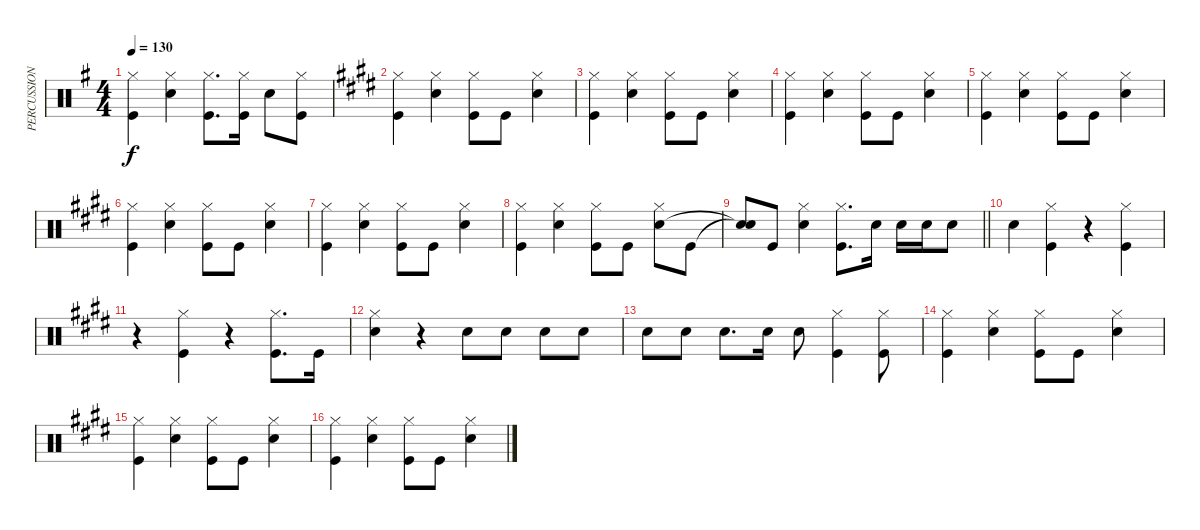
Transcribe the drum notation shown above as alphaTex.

\track ("PERCUSSION" "PERCUSSION") {instrument percussion}
\staff {score}
\articulation defaults
\ts (4 4)
\tempo 130
\clef neutral
\ks eminor
("Hi-Hat (closed)" "Kick (hit)").4{dy f} ("Hi-Hat (closed)" "Snare (hit) 2").4 ("Hi-Hat (closed)" "Kick (hit)").8{d} ("Hi-Hat (closed)" "Kick (hit)").16 "Snare (hit) 2".8 ("Hi-Hat (closed)" "Kick (hit)").8 |
\ks e
("Hi-Hat (closed)" "Kick (hit)").4 ("Hi-Hat (closed)" "Snare (hit) 2").4 ("Hi-Hat (closed)" "Kick (hit)").8 "Kick (hit)".8 ("Hi-Hat (closed)" "Snare (hit) 2").4 |
("Hi-Hat (closed)" "Kick (hit)").4 ("Hi-Hat (closed)" "Snare (hit) 2").4 ("Hi-Hat (closed)" "Kick (hit)").8 "Kick (hit)".8 ("Hi-Hat (closed)" "Snare (hit) 2").4 |
("Hi-Hat (closed)" "Kick (hit)").4 ("Hi-Hat (closed)" "Snare (hit) 2").4 ("Hi-Hat (closed)" "Kick (hit)").8 "Kick (hit)".8 ("Hi-Hat (closed)" "Snare (hit) 2").4 |
("Hi-Hat (closed)" "Kick (hit)").4 ("Hi-Hat (closed)" "Snare (hit) 2").4 ("Hi-Hat (closed)" "Kick (hit)").8 "Kick (hit)".8 ("Hi-Hat (closed)" "Snare (hit) 2").4 |
("Hi-Hat (closed)" "Kick (hit)").4 ("Hi-Hat (closed)" "Snare (hit) 2").4 ("Hi-Hat (closed)" "Kick (hit)").8 "Kick (hit)".8 ("Hi-Hat (closed)" "Snare (hit) 2").4 |
("Hi-Hat (closed)" "Kick (hit)").4 ("Hi-Hat (closed)" "Snare (hit) 2").4 ("Hi-Hat (closed)" "Kick (hit)").8 "Kick (hit)".8 ("Hi-Hat (closed)" "Snare (hit) 2").4 |
("Hi-Hat (closed)" "Kick (hit)").4 ("Hi-Hat (closed)" "Snare (hit) 2").4 ("Hi-Hat (closed)" "Kick (hit)").8 "Kick (hit)".8 ("Hi-Hat (closed)" "Snare (hit) 2").8 "Kick (hit)".8 |
\barLineRight lightlight
("Snare (hit)"{t} "Snare (hit)"{t}).8 "Kick (hit)".8 ("Hi-Hat (closed)" "Snare (hit) 2").4 ("Hi-Hat (closed)" "Kick (hit)").8{d} "Snare (hit) 2".16 "Snare (hit) 2".16 "Snare (hit) 2".16 "Snare (hit) 2".8 |
"Snare (hit) 2".4 ("Hi-Hat (closed)" "Kick (hit)").4 r.4 ("Hi-Hat (closed)" "Kick (hit)").4 |
r.4 ("Hi-Hat (closed)" "Kick (hit)").4 r.4 ("Hi-Hat (closed)" "Kick (hit)").8{d} "Kick (hit)".16 |
("Hi-Hat (closed)" "Snare (hit) 2").4 r.4 "Snare (hit) 2".8 "Snare (hit) 2".8 "Snare (hit) 2".8 "Snare (hit) 2".8 |
"Snare (hit) 2".8 "Snare (hit) 2".8 "Snare (hit) 2".8{d} "Snare (hit) 2".16 "Snare (hit) 2".8 ("Hi-Hat (closed)" "Kick (hit)").4 ("Hi-Hat (closed)" "Kick (hit)").8 |
("Hi-Hat (closed)" "Kick (hit)").4 ("Hi-Hat (closed)" "Snare (hit) 2").4 ("Hi-Hat (closed)" "Kick (hit)").8 "Kick (hit)".8 ("Hi-Hat (closed)" "Snare (hit) 2").4 |
("Hi-Hat (closed)" "Kick (hit)").4 ("Hi-Hat (closed)" "Snare (hit) 2").4 ("Hi-Hat (closed)" "Kick (hit)").8 "Kick (hit)".8 ("Hi-Hat (closed)" "Snare (hit) 2").4 |
("Hi-Hat (closed)" "Kick (hit)").4 ("Hi-Hat (closed)" "Snare (hit) 2").4 ("Hi-Hat (closed)" "Kick (hit)").8 "Kick (hit)".8 ("Hi-Hat (closed)" "Snare (hit) 2").4
